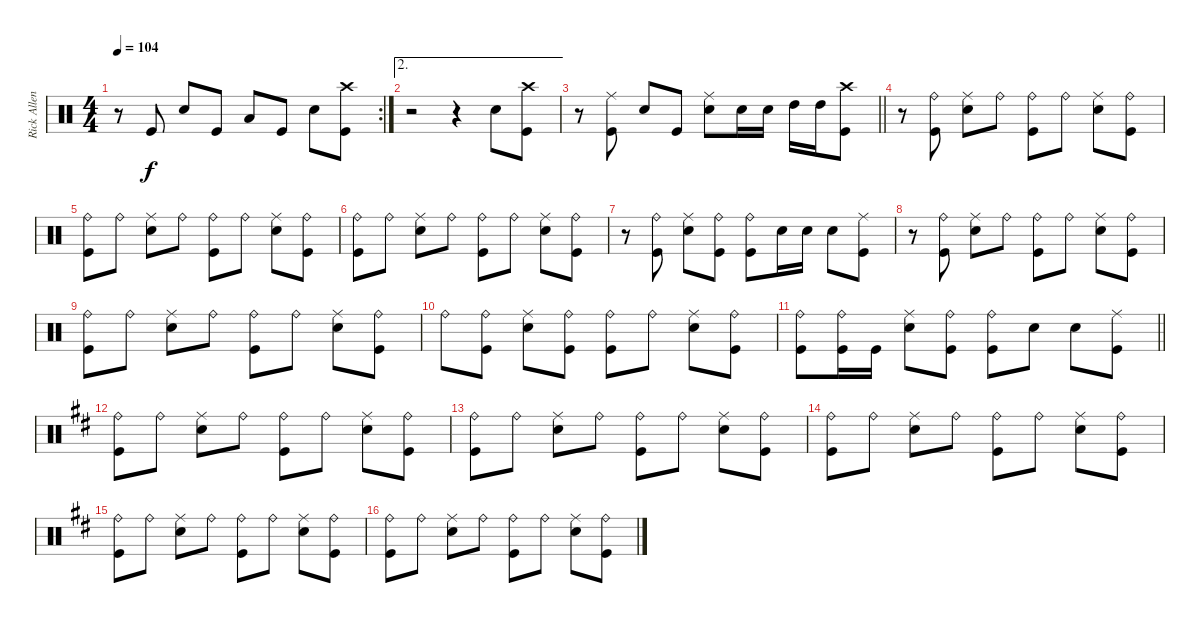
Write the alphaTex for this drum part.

\track ("Rick Allen" "Rick Allen") {instrument percussion}
\staff {score}
\articulation defaults
\rc 2
\ts (4 4)
\tempo 104
\clef neutral
\ks aminor
r.8{dy f} "Kick (hit)".8 "Snare (hit) 2".8 "Kick (hit)".8 "Low Tom (hit)".8 "Kick (hit)".8 "Snare (hit) 2".8 ("Crash high (hit)" "Kick (hit)").8 |
\ae 2
r.2 r.4 "Snare (hit) 2".8 ("Crash high (hit)" "Kick (hit)").8 |
\barLineRight lightlight
r.8 ("Ride (middle)" "Kick (hit)").8 "Snare (hit) 2".8 "Kick (hit)".8 ("Ride (middle)" "Snare (hit) 2").8 "Snare (hit) 2".16 "Snare (hit) 2".16 "High Tom (hit)".16 "High Tom (hit)".16 ("Crash high (hit)" "Kick (hit)").8 |
r.8 ("Ride (bell)" "Kick (hit)").8 ("Ride (middle)" "Snare (hit) 2").8 "Ride (bell)".8 ("Ride (bell)" "Kick (hit)").8 "Ride (bell)".8 ("Ride (middle)" "Snare (hit) 2").8 ("Ride (bell)" "Kick (hit)").8 |
("Ride (bell)" "Kick (hit)").8 "Ride (bell)".8 ("Ride (middle)" "Snare (hit) 2").8 "Ride (bell)".8 ("Ride (bell)" "Kick (hit)").8 "Ride (bell)".8 ("Ride (middle)" "Snare (hit) 2").8 ("Ride (bell)" "Kick (hit)").8 |
("Ride (bell)" "Kick (hit)").8 "Ride (bell)".8 ("Ride (middle)" "Snare (hit) 2").8 "Ride (bell)".8 ("Ride (bell)" "Kick (hit)").8 "Ride (bell)".8 ("Ride (middle)" "Snare (hit) 2").8 ("Ride (bell)" "Kick (hit)").8 |
r.8 ("Ride (bell)" "Kick (hit)").8 ("Ride (middle)" "Snare (hit) 2").8 ("Ride (bell)" "Kick (hit)").8 ("Ride (bell)" "Kick (hit)").8 "Snare (hit) 2".16 "Snare (hit) 2".16 "Snare (hit) 2".8 ("Ride (middle)" "Kick (hit)").8 |
r.8 ("Ride (bell)" "Kick (hit)").8 ("Ride (middle)" "Snare (hit) 2").8 "Ride (bell)".8 ("Ride (bell)" "Kick (hit)").8 "Ride (bell)".8 ("Ride (middle)" "Snare (hit) 2").8 ("Ride (bell)" "Kick (hit)").8 |
("Ride (bell)" "Kick (hit)").8 "Ride (bell)".8 ("Ride (middle)" "Snare (hit) 2").8 "Ride (bell)".8 ("Ride (bell)" "Kick (hit)").8 "Ride (bell)".8 ("Ride (middle)" "Snare (hit) 2").8 ("Ride (bell)" "Kick (hit)").8 |
"Ride (bell)".8 ("Ride (bell)" "Kick (hit)").8 ("Ride (middle)" "Snare (hit) 2").8 ("Ride (bell)" "Kick (hit)").8 ("Ride (bell)" "Kick (hit)").8 "Ride (bell)".8 ("Ride (middle)" "Snare (hit) 2").8 ("Ride (bell)" "Kick (hit)").8 |
\barLineRight lightlight
("Ride (bell)" "Kick (hit)").8 ("Ride (bell)" "Kick (hit)").16 "Kick (hit)".16 ("Ride (middle)" "Snare (hit) 2").8 ("Ride (bell)" "Kick (hit)").8 ("Ride (bell)" "Kick (hit)").8 "Snare (hit) 2".8 "Snare (hit) 2".8 ("Ride (middle)" "Kick (hit)").8 |
\ks bminor
("Ride (bell)" "Kick (hit)").8 "Ride (bell)".8 ("Ride (middle)" "Snare (hit) 2").8 "Ride (bell)".8 ("Ride (bell)" "Kick (hit)").8 "Ride (bell)".8 ("Ride (middle)" "Snare (hit) 2").8 ("Ride (bell)" "Kick (hit)").8 |
("Ride (bell)" "Kick (hit)").8 "Ride (bell)".8 ("Ride (middle)" "Snare (hit) 2").8 "Ride (bell)".8 ("Ride (bell)" "Kick (hit)").8 "Ride (bell)".8 ("Ride (middle)" "Snare (hit) 2").8 ("Ride (bell)" "Kick (hit)").8 |
("Ride (bell)" "Kick (hit)").8 "Ride (bell)".8 ("Ride (middle)" "Snare (hit) 2").8 "Ride (bell)".8 ("Ride (bell)" "Kick (hit)").8 "Ride (bell)".8 ("Ride (middle)" "Snare (hit) 2").8 ("Ride (bell)" "Kick (hit)").8 |
("Ride (bell)" "Kick (hit)").8 "Ride (bell)".8 ("Ride (middle)" "Snare (hit) 2").8 "Ride (bell)".8 ("Ride (bell)" "Kick (hit)").8 "Ride (bell)".8 ("Ride (middle)" "Snare (hit) 2").8 ("Ride (bell)" "Kick (hit)").8 |
("Ride (bell)" "Kick (hit)").8 "Ride (bell)".8 ("Ride (middle)" "Snare (hit) 2").8 "Ride (bell)".8 ("Ride (bell)" "Kick (hit)").8 "Ride (bell)".8 ("Ride (middle)" "Snare (hit) 2").8 ("Ride (bell)" "Kick (hit)").8
